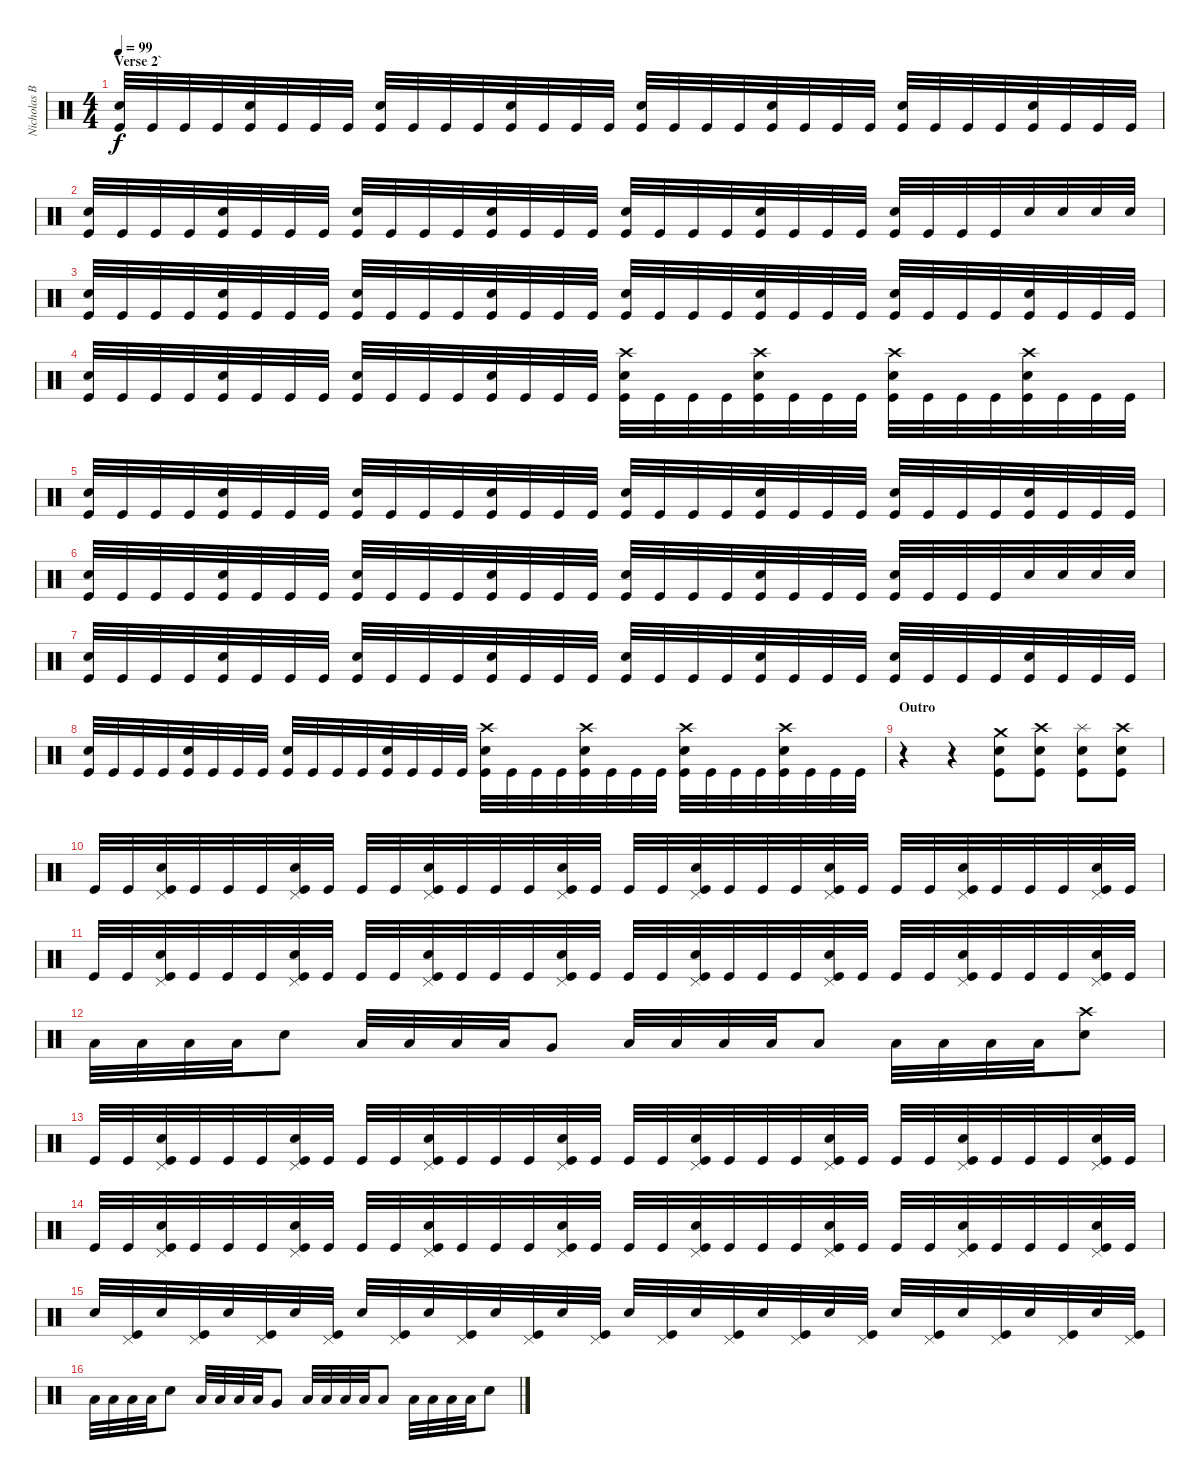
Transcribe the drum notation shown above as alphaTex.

\track ("Nicholas Barker" "Nicholas B") {instrument percussion}
\staff {score}
\articulation defaults
\ts (4 4)
\section ("" "Verse 2`")
\tempo 99
\clef neutral
\ks c
("Snare (hit) 2" "Kick (hit)").32{dy f} "Kick (hit)".32 "Kick (hit)".32 "Kick (hit)".32 ("Snare (hit) 2" "Kick (hit)").32 "Kick (hit)".32 "Kick (hit)".32 "Kick (hit)".32 ("Snare (hit) 2" "Kick (hit)").32 "Kick (hit)".32 "Kick (hit)".32 "Kick (hit)".32 ("Snare (hit) 2" "Kick (hit)").32 "Kick (hit)".32 "Kick (hit)".32 "Kick (hit)".32 ("Snare (hit) 2" "Kick (hit)").32 "Kick (hit)".32 "Kick (hit)".32 "Kick (hit)".32 ("Snare (hit) 2" "Kick (hit)").32 "Kick (hit)".32 "Kick (hit)".32 "Kick (hit)".32 ("Snare (hit) 2" "Kick (hit)").32 "Kick (hit)".32 "Kick (hit)".32 "Kick (hit)".32 ("Snare (hit) 2" "Kick (hit)").32 "Kick (hit)".32 "Kick (hit)".32 "Kick (hit)".32 |
("Snare (hit) 2" "Kick (hit)").32 "Kick (hit)".32 "Kick (hit)".32 "Kick (hit)".32 ("Snare (hit) 2" "Kick (hit)").32 "Kick (hit)".32 "Kick (hit)".32 "Kick (hit)".32 ("Snare (hit) 2" "Kick (hit)").32 "Kick (hit)".32 "Kick (hit)".32 "Kick (hit)".32 ("Snare (hit) 2" "Kick (hit)").32 "Kick (hit)".32 "Kick (hit)".32 "Kick (hit)".32 ("Snare (hit) 2" "Kick (hit)").32 "Kick (hit)".32 "Kick (hit)".32 "Kick (hit)".32 ("Snare (hit) 2" "Kick (hit)").32 "Kick (hit)".32 "Kick (hit)".32 "Kick (hit)".32 ("Snare (hit) 2" "Kick (hit)").32 "Kick (hit)".32 "Kick (hit)".32 "Kick (hit)".32 "Snare (hit) 2".32 "Snare (hit) 2".32 "Snare (hit) 2".32 "Snare (hit) 2".32 |
("Snare (hit) 2" "Kick (hit)").32 "Kick (hit)".32 "Kick (hit)".32 "Kick (hit)".32 ("Snare (hit) 2" "Kick (hit)").32 "Kick (hit)".32 "Kick (hit)".32 "Kick (hit)".32 ("Snare (hit) 2" "Kick (hit)").32 "Kick (hit)".32 "Kick (hit)".32 "Kick (hit)".32 ("Snare (hit) 2" "Kick (hit)").32 "Kick (hit)".32 "Kick (hit)".32 "Kick (hit)".32 ("Snare (hit) 2" "Kick (hit)").32 "Kick (hit)".32 "Kick (hit)".32 "Kick (hit)".32 ("Snare (hit) 2" "Kick (hit)").32 "Kick (hit)".32 "Kick (hit)".32 "Kick (hit)".32 ("Snare (hit) 2" "Kick (hit)").32 "Kick (hit)".32 "Kick (hit)".32 "Kick (hit)".32 ("Snare (hit) 2" "Kick (hit)").32 "Kick (hit)".32 "Kick (hit)".32 "Kick (hit)".32 |
("Snare (hit) 2" "Kick (hit)").32 "Kick (hit)".32 "Kick (hit)".32 "Kick (hit)".32 ("Snare (hit) 2" "Kick (hit)").32 "Kick (hit)".32 "Kick (hit)".32 "Kick (hit)".32 ("Snare (hit) 2" "Kick (hit)").32 "Kick (hit)".32 "Kick (hit)".32 "Kick (hit)".32 ("Snare (hit) 2" "Kick (hit)").32 "Kick (hit)".32 "Kick (hit)".32 "Kick (hit)".32 ("Crash high (hit)" "Snare (hit) 2" "Kick (hit)").32 "Kick (hit)".32 "Kick (hit)".32 "Kick (hit)".32 ("Crash high (hit)" "Snare (hit) 2" "Kick (hit)").32 "Kick (hit)".32 "Kick (hit)".32 "Kick (hit)".32 ("Crash high (hit)" "Snare (hit) 2" "Kick (hit)").32 "Kick (hit)".32 "Kick (hit)".32 "Kick (hit)".32 ("Crash high (hit)" "Snare (hit) 2" "Kick (hit)").32 "Kick (hit)".32 "Kick (hit)".32 "Kick (hit)".32 |
("Snare (hit) 2" "Kick (hit)").32 "Kick (hit)".32 "Kick (hit)".32 "Kick (hit)".32 ("Snare (hit) 2" "Kick (hit)").32 "Kick (hit)".32 "Kick (hit)".32 "Kick (hit)".32 ("Snare (hit) 2" "Kick (hit)").32 "Kick (hit)".32 "Kick (hit)".32 "Kick (hit)".32 ("Snare (hit) 2" "Kick (hit)").32 "Kick (hit)".32 "Kick (hit)".32 "Kick (hit)".32 ("Snare (hit) 2" "Kick (hit)").32 "Kick (hit)".32 "Kick (hit)".32 "Kick (hit)".32 ("Snare (hit) 2" "Kick (hit)").32 "Kick (hit)".32 "Kick (hit)".32 "Kick (hit)".32 ("Snare (hit) 2" "Kick (hit)").32 "Kick (hit)".32 "Kick (hit)".32 "Kick (hit)".32 ("Snare (hit) 2" "Kick (hit)").32 "Kick (hit)".32 "Kick (hit)".32 "Kick (hit)".32 |
("Snare (hit) 2" "Kick (hit)").32 "Kick (hit)".32 "Kick (hit)".32 "Kick (hit)".32 ("Snare (hit) 2" "Kick (hit)").32 "Kick (hit)".32 "Kick (hit)".32 "Kick (hit)".32 ("Snare (hit) 2" "Kick (hit)").32 "Kick (hit)".32 "Kick (hit)".32 "Kick (hit)".32 ("Snare (hit) 2" "Kick (hit)").32 "Kick (hit)".32 "Kick (hit)".32 "Kick (hit)".32 ("Snare (hit) 2" "Kick (hit)").32 "Kick (hit)".32 "Kick (hit)".32 "Kick (hit)".32 ("Snare (hit) 2" "Kick (hit)").32 "Kick (hit)".32 "Kick (hit)".32 "Kick (hit)".32 ("Snare (hit) 2" "Kick (hit)").32 "Kick (hit)".32 "Kick (hit)".32 "Kick (hit)".32 "Snare (hit) 2".32 "Snare (hit) 2".32 "Snare (hit) 2".32 "Snare (hit) 2".32 |
("Snare (hit) 2" "Kick (hit)").32 "Kick (hit)".32 "Kick (hit)".32 "Kick (hit)".32 ("Snare (hit) 2" "Kick (hit)").32 "Kick (hit)".32 "Kick (hit)".32 "Kick (hit)".32 ("Snare (hit) 2" "Kick (hit)").32 "Kick (hit)".32 "Kick (hit)".32 "Kick (hit)".32 ("Snare (hit) 2" "Kick (hit)").32 "Kick (hit)".32 "Kick (hit)".32 "Kick (hit)".32 ("Snare (hit) 2" "Kick (hit)").32 "Kick (hit)".32 "Kick (hit)".32 "Kick (hit)".32 ("Snare (hit) 2" "Kick (hit)").32 "Kick (hit)".32 "Kick (hit)".32 "Kick (hit)".32 ("Snare (hit) 2" "Kick (hit)").32 "Kick (hit)".32 "Kick (hit)".32 "Kick (hit)".32 ("Snare (hit) 2" "Kick (hit)").32 "Kick (hit)".32 "Kick (hit)".32 "Kick (hit)".32 |
("Snare (hit) 2" "Kick (hit)").32 "Kick (hit)".32 "Kick (hit)".32 "Kick (hit)".32 ("Snare (hit) 2" "Kick (hit)").32 "Kick (hit)".32 "Kick (hit)".32 "Kick (hit)".32 ("Snare (hit) 2" "Kick (hit)").32 "Kick (hit)".32 "Kick (hit)".32 "Kick (hit)".32 ("Snare (hit) 2" "Kick (hit)").32 "Kick (hit)".32 "Kick (hit)".32 "Kick (hit)".32 ("Crash high (hit)" "Snare (hit) 2" "Kick (hit)").32 "Kick (hit)".32 "Kick (hit)".32 "Kick (hit)".32 ("Crash high (hit)" "Snare (hit) 2" "Kick (hit)").32 "Kick (hit)".32 "Kick (hit)".32 "Kick (hit)".32 ("Crash high (hit)" "Snare (hit) 2" "Kick (hit)").32 "Kick (hit)".32 "Kick (hit)".32 "Kick (hit)".32 ("Crash high (hit)" "Snare (hit) 2" "Kick (hit)").32 "Kick (hit)".32 "Kick (hit)".32 "Kick (hit)".32 |
\section ("" "Outro")
r.4 r.4 ("Crash medium (hit)" "Snare (hit) 2" "Kick (hit)").8 ("Crash high (hit)" "Snare (hit) 2" "Kick (hit)").8 ("Splash (hit)" "Snare (hit) 2" "Kick (hit)").8 ("Crash high (hit)" "Snare (hit) 2" "Kick (hit)").8 |
"Kick (hit)".32 "Kick (hit)".32 ("Pedal Hi-Hat (hit)" "Snare (hit) 2" "Kick (hit)").32 "Kick (hit)".32 "Kick (hit)".32 "Kick (hit)".32 ("Pedal Hi-Hat (hit)" "Snare (hit) 2" "Kick (hit)").32 "Kick (hit)".32 "Kick (hit)".32 "Kick (hit)".32 ("Pedal Hi-Hat (hit)" "Snare (hit) 2" "Kick (hit)").32 "Kick (hit)".32 "Kick (hit)".32 "Kick (hit)".32 ("Pedal Hi-Hat (hit)" "Snare (hit) 2" "Kick (hit)").32 "Kick (hit)".32 "Kick (hit)".32 "Kick (hit)".32 ("Pedal Hi-Hat (hit)" "Snare (hit) 2" "Kick (hit)").32 "Kick (hit)".32 "Kick (hit)".32 "Kick (hit)".32 ("Pedal Hi-Hat (hit)" "Snare (hit) 2" "Kick (hit)").32 "Kick (hit)".32 "Kick (hit)".32 "Kick (hit)".32 ("Pedal Hi-Hat (hit)" "Snare (hit) 2" "Kick (hit)").32 "Kick (hit)".32 "Kick (hit)".32 "Kick (hit)".32 ("Pedal Hi-Hat (hit)" "Snare (hit) 2" "Kick (hit)").32 "Kick (hit)".32 |
"Kick (hit)".32 "Kick (hit)".32 ("Pedal Hi-Hat (hit)" "Snare (hit) 2" "Kick (hit)").32 "Kick (hit)".32 "Kick (hit)".32 "Kick (hit)".32 ("Pedal Hi-Hat (hit)" "Snare (hit) 2" "Kick (hit)").32 "Kick (hit)".32 "Kick (hit)".32 "Kick (hit)".32 ("Pedal Hi-Hat (hit)" "Snare (hit) 2" "Kick (hit)").32 "Kick (hit)".32 "Kick (hit)".32 "Kick (hit)".32 ("Pedal Hi-Hat (hit)" "Snare (hit) 2" "Kick (hit)").32 "Kick (hit)".32 "Kick (hit)".32 "Kick (hit)".32 ("Pedal Hi-Hat (hit)" "Snare (hit) 2" "Kick (hit)").32 "Kick (hit)".32 "Kick (hit)".32 "Kick (hit)".32 ("Pedal Hi-Hat (hit)" "Snare (hit) 2" "Kick (hit)").32 "Kick (hit)".32 "Kick (hit)".32 "Kick (hit)".32 ("Pedal Hi-Hat (hit)" "Snare (hit) 2" "Kick (hit)").32 "Kick (hit)".32 "Kick (hit)".32 "Kick (hit)".32 ("Pedal Hi-Hat (hit)" "Snare (hit) 2" "Kick (hit)").32 "Kick (hit)".32 |
"Low Tom (hit)".32 "Low Tom (hit)".32 "Low Tom (hit)".32 "Low Tom (hit)".32 "Snare (hit) 2".8 "Low Tom (hit)".32 "Low Tom (hit)".32 "Low Tom (hit)".32 "Low Tom (hit)".32 "Very Low Tom (hit)".8 "Low Tom (hit)".32 "Low Tom (hit)".32 "Low Tom (hit)".32 "Low Tom (hit)".32 "Low Floor Tom (hit)".8 "Low Tom (hit)".32 "Low Tom (hit)".32 "Low Tom (hit)".32 "Low Tom (hit)".32 ("Crash high (hit)" "Snare (hit) 2").8 |
"Kick (hit)".32 "Kick (hit)".32 ("Pedal Hi-Hat (hit)" "Snare (hit) 2" "Kick (hit)").32 "Kick (hit)".32 "Kick (hit)".32 "Kick (hit)".32 ("Pedal Hi-Hat (hit)" "Snare (hit) 2" "Kick (hit)").32 "Kick (hit)".32 "Kick (hit)".32 "Kick (hit)".32 ("Pedal Hi-Hat (hit)" "Snare (hit) 2" "Kick (hit)").32 "Kick (hit)".32 "Kick (hit)".32 "Kick (hit)".32 ("Pedal Hi-Hat (hit)" "Snare (hit) 2" "Kick (hit)").32 "Kick (hit)".32 "Kick (hit)".32 "Kick (hit)".32 ("Pedal Hi-Hat (hit)" "Snare (hit) 2" "Kick (hit)").32 "Kick (hit)".32 "Kick (hit)".32 "Kick (hit)".32 ("Pedal Hi-Hat (hit)" "Snare (hit) 2" "Kick (hit)").32 "Kick (hit)".32 "Kick (hit)".32 "Kick (hit)".32 ("Pedal Hi-Hat (hit)" "Snare (hit) 2" "Kick (hit)").32 "Kick (hit)".32 "Kick (hit)".32 "Kick (hit)".32 ("Pedal Hi-Hat (hit)" "Snare (hit) 2" "Kick (hit)").32 "Kick (hit)".32 |
"Kick (hit)".32 "Kick (hit)".32 ("Pedal Hi-Hat (hit)" "Snare (hit) 2" "Kick (hit)").32 "Kick (hit)".32 "Kick (hit)".32 "Kick (hit)".32 ("Pedal Hi-Hat (hit)" "Snare (hit) 2" "Kick (hit)").32 "Kick (hit)".32 "Kick (hit)".32 "Kick (hit)".32 ("Pedal Hi-Hat (hit)" "Snare (hit) 2" "Kick (hit)").32 "Kick (hit)".32 "Kick (hit)".32 "Kick (hit)".32 ("Pedal Hi-Hat (hit)" "Snare (hit) 2" "Kick (hit)").32 "Kick (hit)".32 "Kick (hit)".32 "Kick (hit)".32 ("Pedal Hi-Hat (hit)" "Snare (hit) 2" "Kick (hit)").32 "Kick (hit)".32 "Kick (hit)".32 "Kick (hit)".32 ("Pedal Hi-Hat (hit)" "Snare (hit) 2" "Kick (hit)").32 "Kick (hit)".32 "Kick (hit)".32 "Kick (hit)".32 ("Pedal Hi-Hat (hit)" "Snare (hit) 2" "Kick (hit)").32 "Kick (hit)".32 "Kick (hit)".32 "Kick (hit)".32 ("Pedal Hi-Hat (hit)" "Snare (hit) 2" "Kick (hit)").32 "Kick (hit)".32 |
"Snare (hit) 2".32 ("Pedal Hi-Hat (hit)" "Kick (hit)").32 "Snare (hit) 2".32 ("Pedal Hi-Hat (hit)" "Kick (hit)").32 "Snare (hit) 2".32 ("Pedal Hi-Hat (hit)" "Kick (hit)").32 "Snare (hit) 2".32 ("Pedal Hi-Hat (hit)" "Kick (hit)").32 "Snare (hit) 2".32 ("Pedal Hi-Hat (hit)" "Kick (hit)").32 "Snare (hit) 2".32 ("Pedal Hi-Hat (hit)" "Kick (hit)").32 "Snare (hit) 2".32 ("Pedal Hi-Hat (hit)" "Kick (hit)").32 "Snare (hit) 2".32 ("Pedal Hi-Hat (hit)" "Kick (hit)").32 "Snare (hit) 2".32 ("Pedal Hi-Hat (hit)" "Kick (hit)").32 "Snare (hit) 2".32 ("Pedal Hi-Hat (hit)" "Kick (hit)").32 "Snare (hit) 2".32 ("Pedal Hi-Hat (hit)" "Kick (hit)").32 "Snare (hit) 2".32 ("Pedal Hi-Hat (hit)" "Kick (hit)").32 "Snare (hit) 2".32 ("Pedal Hi-Hat (hit)" "Kick (hit)").32 "Snare (hit) 2".32 ("Pedal Hi-Hat (hit)" "Kick (hit)").32 "Snare (hit) 2".32 ("Pedal Hi-Hat (hit)" "Kick (hit)").32 "Snare (hit) 2".32 ("Pedal Hi-Hat (hit)" "Kick (hit)").32 |
"Low Tom (hit)".32 "Low Tom (hit)".32 "Low Tom (hit)".32 "Low Tom (hit)".32 "Snare (hit) 2".8 "Low Tom (hit)".32 "Low Tom (hit)".32 "Low Tom (hit)".32 "Low Tom (hit)".32 "Very Low Tom (hit)".8 "Low Tom (hit)".32 "Low Tom (hit)".32 "Low Tom (hit)".32 "Low Tom (hit)".32 "Low Floor Tom (hit)".8 "Low Tom (hit)".32 "Low Tom (hit)".32 "Low Tom (hit)".32 "Low Tom (hit)".32 "Snare (hit) 2".8
